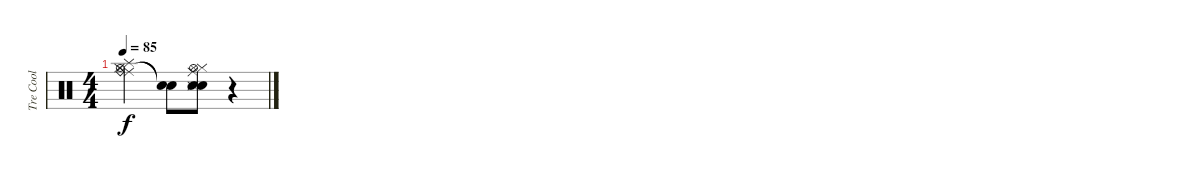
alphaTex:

\track ("Tre Cool" "Tre Cool") {instrument percussion}
\staff {score}
\articulation defaults
\ts (4 4)
\tempo 85
\clef neutral
\ks c
("Hi-Hat (closed)" "Hi-Hat (open)" "Ride (middle)" "Ride (bell)" "Splash (hit)").2{dy f} ("Snare (hit)"{t} "Snare (hit)"{t}).8 ("Electric Snare (hit)" "Snare (hit) 2" "Metronome (hit)" "Hi-Hat (closed)" "Hi-Hat (open)" "Ride (middle)").8 r.4
